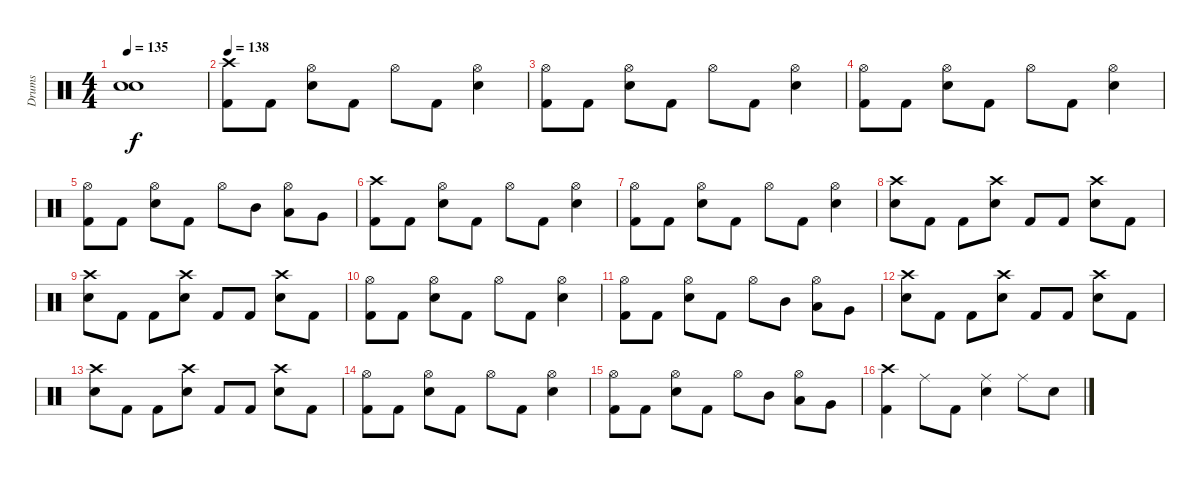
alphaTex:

\track ("Drums" "Drums") {instrument percussion}
\staff {score}
\articulation defaults
\ts (4 4)
\tempo 135
\clef neutral
\ks c
("Snare (hit)"{t} "Snare (hit)"{t}).1{dy f} |
\tempo 138
("Crash high (hit)" "Kick (hit) 2").8 "Kick (hit) 2".8 ("Hi-Hat (open)" "Electric Snare (hit)").8 "Kick (hit) 2".8 "Hi-Hat (open)".8 "Kick (hit) 2".8 ("Hi-Hat (open)" "Electric Snare (hit)").4 |
("Hi-Hat (open)" "Kick (hit) 2").8 "Kick (hit) 2".8 ("Hi-Hat (open)" "Electric Snare (hit)").8 "Kick (hit) 2".8 "Hi-Hat (open)".8 "Kick (hit) 2".8 ("Hi-Hat (open)" "Electric Snare (hit)").4 |
("Hi-Hat (open)" "Kick (hit) 2").8 "Kick (hit) 2".8 ("Hi-Hat (open)" "Electric Snare (hit)").8 "Kick (hit) 2".8 "Hi-Hat (open)".8 "Kick (hit) 2".8 ("Hi-Hat (open)" "Electric Snare (hit)").4 |
("Hi-Hat (open)" "Kick (hit) 2").8 "Kick (hit) 2".8 ("Hi-Hat (open)" "Electric Snare (hit)").8 "Kick (hit) 2".8 "Hi-Hat (open)".8 "Mid Tom (hit)".8 ("Hi-Hat (open)" "Low Tom (hit)").8 "Very Low Tom (hit)".8 |
("Crash high (hit)" "Kick (hit) 2").8 "Kick (hit) 2".8 ("Hi-Hat (open)" "Electric Snare (hit)").8 "Kick (hit) 2".8 "Hi-Hat (open)".8 "Kick (hit) 2".8 ("Hi-Hat (open)" "Electric Snare (hit)").4 |
("Hi-Hat (open)" "Kick (hit) 2").8 "Kick (hit) 2".8 ("Hi-Hat (open)" "Electric Snare (hit)").8 "Kick (hit) 2".8 "Hi-Hat (open)".8 "Kick (hit) 2".8 ("Hi-Hat (open)" "Electric Snare (hit)").4 |
("Crash high (hit)" "Electric Snare (hit)").8 "Kick (hit) 2".8 "Kick (hit) 2".8 ("Crash high (hit)" "Electric Snare (hit)").8 "Kick (hit) 2".8 "Kick (hit) 2".8 ("Crash high (hit)" "Electric Snare (hit)").8 "Kick (hit) 2".8 |
("Crash high (hit)" "Electric Snare (hit)").8 "Kick (hit) 2".8 "Kick (hit) 2".8 ("Crash high (hit)" "Electric Snare (hit)").8 "Kick (hit) 2".8 "Kick (hit) 2".8 ("Crash high (hit)" "Electric Snare (hit)").8 "Kick (hit) 2".8 |
("Hi-Hat (open)" "Kick (hit) 2").8 "Kick (hit) 2".8 ("Hi-Hat (open)" "Electric Snare (hit)").8 "Kick (hit) 2".8 "Hi-Hat (open)".8 "Kick (hit) 2".8 ("Hi-Hat (open)" "Electric Snare (hit)").4 |
("Hi-Hat (open)" "Kick (hit) 2").8 "Kick (hit) 2".8 ("Hi-Hat (open)" "Electric Snare (hit)").8 "Kick (hit) 2".8 "Hi-Hat (open)".8 "Mid Tom (hit)".8 ("Hi-Hat (open)" "Low Tom (hit)").8 "Very Low Tom (hit)".8 |
("Crash high (hit)" "Electric Snare (hit)").8 "Kick (hit) 2".8 "Kick (hit) 2".8 ("Crash high (hit)" "Electric Snare (hit)").8 "Kick (hit) 2".8 "Kick (hit) 2".8 ("Crash high (hit)" "Electric Snare (hit)").8 "Kick (hit) 2".8 |
("Crash high (hit)" "Electric Snare (hit)").8 "Kick (hit) 2".8 "Kick (hit) 2".8 ("Crash high (hit)" "Electric Snare (hit)").8 "Kick (hit) 2".8 "Kick (hit) 2".8 ("Crash high (hit)" "Electric Snare (hit)").8 "Kick (hit) 2".8 |
("Hi-Hat (open)" "Kick (hit) 2").8 "Kick (hit) 2".8 ("Hi-Hat (open)" "Electric Snare (hit)").8 "Kick (hit) 2".8 "Hi-Hat (open)".8 "Kick (hit) 2".8 ("Hi-Hat (open)" "Electric Snare (hit)").4 |
("Hi-Hat (open)" "Kick (hit) 2").8 "Kick (hit) 2".8 ("Hi-Hat (open)" "Electric Snare (hit)").8 "Kick (hit) 2".8 "Hi-Hat (open)".8 "Mid Tom (hit)".8 ("Hi-Hat (open)" "Low Tom (hit)").8 "Very Low Tom (hit)".8 |
("Crash high (hit)" "Kick (hit) 2").4 "Ride (middle)".8 "Kick (hit) 2".8 ("Ride (middle)" "Electric Snare (hit)").4 "Ride (middle)".8 "Electric Snare (hit)".8
